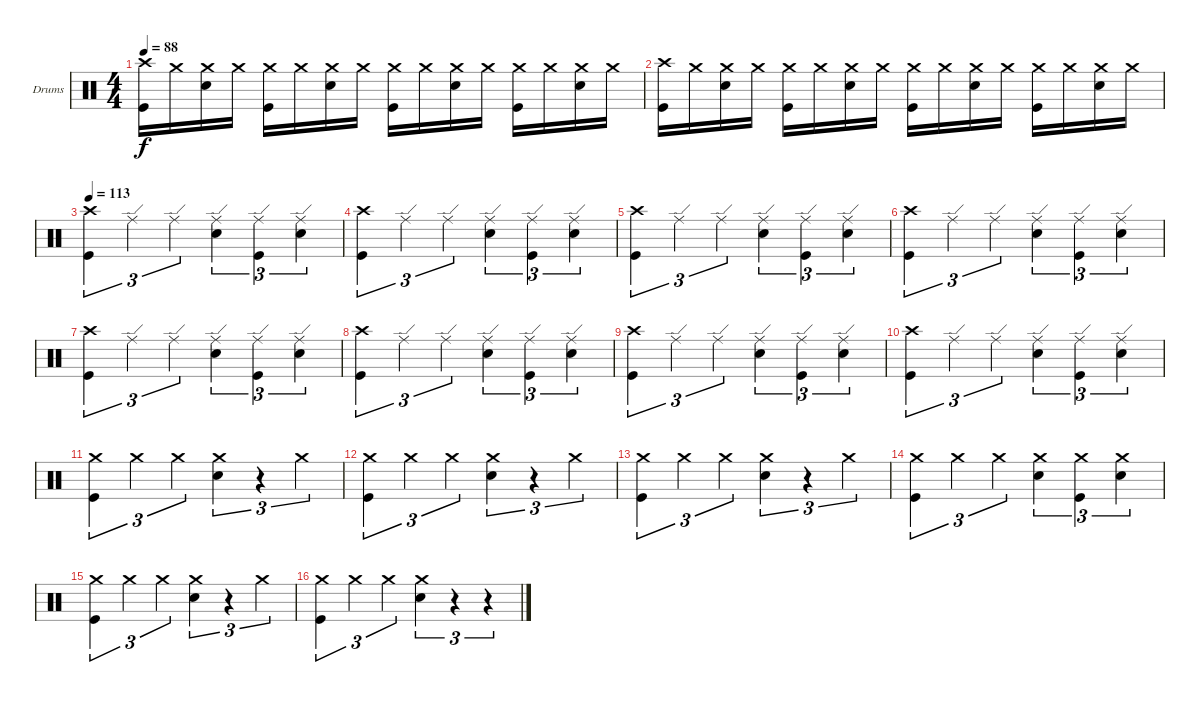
\defaultSystemsLayout 4
\bracketExtendMode groupsimilarinstruments
\firstSystemTrackNameOrientation horizontal
\otherSystemsTrackNameOrientation horizontal
\track ("Drumkit" "Drums") {instrument percussion}
\staff {score}
\articulation defaults
\ts (4 4)
\tempo 88
\clef neutral
\ks c
("Kick (hit)" "Crash high (hit)").16{dy f} "Crash medium (hit)".16 ("Crash medium (hit)" "Snare (hit) 2").16 "Crash medium (hit)".16 ("Crash medium (hit)" "Kick (hit)").16 "Crash medium (hit)".16 ("Snare (hit) 2" "Crash medium (hit)").16 "Crash medium (hit)".16 ("Kick (hit)" "Crash medium (hit)").16 "Crash medium (hit)".16 ("Crash medium (hit)" "Snare (hit) 2").16 "Crash medium (hit)".16 ("Crash medium (hit)" "Kick (hit)").16 "Crash medium (hit)".16 ("Snare (hit) 2" "Crash medium (hit)").16 "Crash medium (hit)".16 |
("Kick (hit)" "Crash high (hit)").16 "Crash medium (hit)".16 ("Crash medium (hit)" "Snare (hit) 2").16 "Crash medium (hit)".16 ("Crash medium (hit)" "Kick (hit)").16 "Crash medium (hit)".16 ("Snare (hit) 2" "Crash medium (hit)").16 "Crash medium (hit)".16 ("Kick (hit)" "Crash medium (hit)").16 "Crash medium (hit)".16 ("Crash medium (hit)" "Snare (hit) 2").16 "Crash medium (hit)".16 ("Crash medium (hit)" "Kick (hit)").16 "Crash medium (hit)".16 ("Snare (hit) 2" "Crash medium (hit)").16 "Crash medium (hit)".16 |
\tempo 113
("Kick (hit)" "Crash high (hit)").4{tu (3 2)} "Ride (edge)".4{tu (3 2)} "Ride (edge)".4{tu (3 2)} ("Snare (hit) 2" "Ride (edge)").4{tu (3 2)} ("Ride (edge)" "Kick (hit)").4{tu (3 2)} ("Ride (edge)" "Snare (hit) 2").4{tu (3 2)} |
("Kick (hit)" "Crash high (hit)").4{tu (3 2)} "Ride (edge)".4{tu (3 2)} "Ride (edge)".4{tu (3 2)} ("Snare (hit) 2" "Ride (edge)").4{tu (3 2)} ("Ride (edge)" "Kick (hit)").4{tu (3 2)} ("Ride (edge)" "Snare (hit) 2").4{tu (3 2)} |
("Kick (hit)" "Crash high (hit)").4{tu (3 2)} "Ride (edge)".4{tu (3 2)} "Ride (edge)".4{tu (3 2)} ("Snare (hit) 2" "Ride (edge)").4{tu (3 2)} ("Ride (edge)" "Kick (hit)").4{tu (3 2)} ("Ride (edge)" "Snare (hit) 2").4{tu (3 2)} |
("Kick (hit)" "Crash high (hit)").4{tu (3 2)} "Ride (edge)".4{tu (3 2)} "Ride (edge)".4{tu (3 2)} ("Snare (hit) 2" "Ride (edge)").4{tu (3 2)} ("Ride (edge)" "Kick (hit)").4{tu (3 2)} ("Ride (edge)" "Snare (hit) 2").4{tu (3 2)} |
("Kick (hit)" "Crash high (hit)").4{tu (3 2)} "Ride (edge)".4{tu (3 2)} "Ride (edge)".4{tu (3 2)} ("Snare (hit) 2" "Ride (edge)").4{tu (3 2)} ("Ride (edge)" "Kick (hit)").4{tu (3 2)} ("Ride (edge)" "Snare (hit) 2").4{tu (3 2)} |
("Kick (hit)" "Crash high (hit)").4{tu (3 2)} "Ride (edge)".4{tu (3 2)} "Ride (edge)".4{tu (3 2)} ("Snare (hit) 2" "Ride (edge)").4{tu (3 2)} ("Ride (edge)" "Kick (hit)").4{tu (3 2)} ("Ride (edge)" "Snare (hit) 2").4{tu (3 2)} |
("Kick (hit)" "Crash high (hit)").4{tu (3 2)} "Ride (edge)".4{tu (3 2)} "Ride (edge)".4{tu (3 2)} ("Snare (hit) 2" "Ride (edge)").4{tu (3 2)} ("Ride (edge)" "Kick (hit)").4{tu (3 2)} ("Ride (edge)" "Snare (hit) 2").4{tu (3 2)} |
("Kick (hit)" "Crash high (hit)").4{tu (3 2)} "Ride (edge)".4{tu (3 2)} "Ride (edge)".4{tu (3 2)} ("Snare (hit) 2" "Ride (edge)").4{tu (3 2)} ("Ride (edge)" "Kick (hit)").4{tu (3 2)} ("Ride (edge)" "Snare (hit) 2").4{tu (3 2)} |
("Kick (hit)" "Crash medium (hit)").4{tu (3 2)} "Crash medium (hit)".4{tu (3 2)} "Crash medium (hit)".4{tu (3 2)} ("Snare (hit) 2" "Crash medium (hit)").4{tu (3 2)} r.4{tu (3 2)} "Crash medium (hit)".4{tu (3 2)} |
("Kick (hit)" "Crash medium (hit)").4{tu (3 2)} "Crash medium (hit)".4{tu (3 2)} "Crash medium (hit)".4{tu (3 2)} ("Snare (hit) 2" "Crash medium (hit)").4{tu (3 2)} r.4{tu (3 2)} "Crash medium (hit)".4{tu (3 2)} |
("Kick (hit)" "Crash medium (hit)").4{tu (3 2)} "Crash medium (hit)".4{tu (3 2)} "Crash medium (hit)".4{tu (3 2)} ("Snare (hit) 2" "Crash medium (hit)").4{tu (3 2)} r.4{tu (3 2)} "Crash medium (hit)".4{tu (3 2)} |
("Kick (hit)" "Crash medium (hit)").4{tu (3 2)} "Crash medium (hit)".4{tu (3 2)} "Crash medium (hit)".4{tu (3 2)} ("Snare (hit) 2" "Crash medium (hit)").4{tu (3 2)} ("Kick (hit)" "Crash medium (hit)").4{tu (3 2)} ("Crash medium (hit)" "Snare (hit) 2").4{tu (3 2)} |
("Kick (hit)" "Crash medium (hit)").4{tu (3 2)} "Crash medium (hit)".4{tu (3 2)} "Crash medium (hit)".4{tu (3 2)} ("Snare (hit) 2" "Crash medium (hit)").4{tu (3 2)} r.4{tu (3 2)} "Crash medium (hit)".4{tu (3 2)} |
("Kick (hit)" "Crash medium (hit)").4{tu (3 2)} "Crash medium (hit)".4{tu (3 2)} "Crash medium (hit)".4{tu (3 2)} ("Snare (hit) 2" "Crash medium (hit)").4{tu (3 2)} r.4{tu (3 2)} r.4{tu (3 2)}
